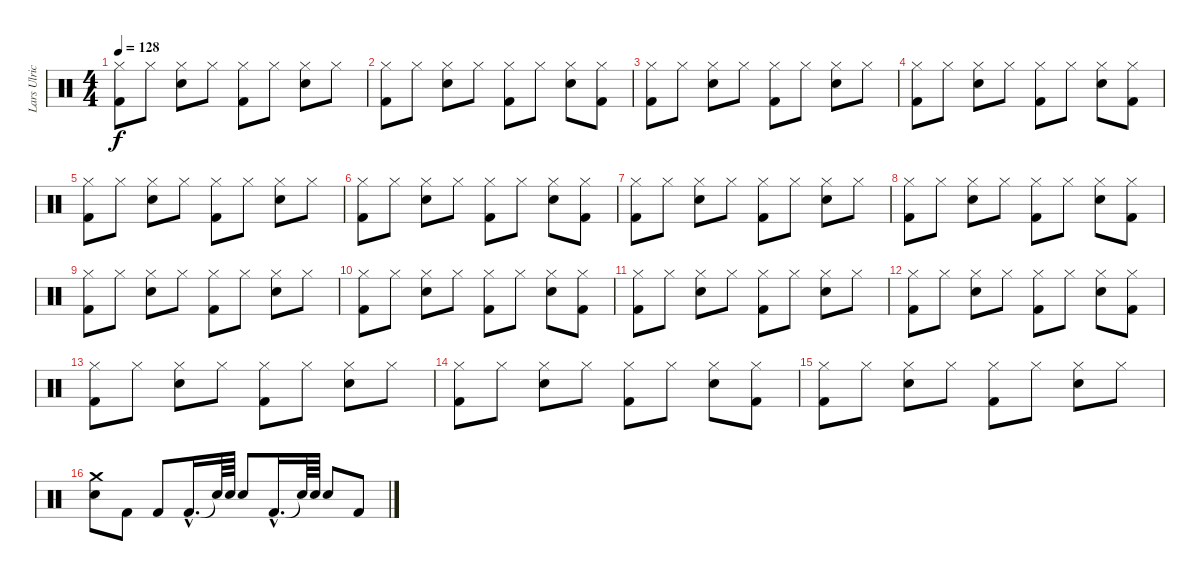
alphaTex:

\track ("Lars Ulrich" "Lars Ulric") {instrument percussion}
\staff {score}
\articulation defaults
\ts (4 4)
\tempo 128
\clef neutral
\ks c
("Kick (hit) 2" "Hi-Hat (closed)").8{dy f volume 12} "Hi-Hat (closed)".8 ("Snare (hit) 2" "Hi-Hat (closed)").8 "Hi-Hat (closed)".8 ("Kick (hit) 2" "Hi-Hat (closed)").8 "Hi-Hat (closed)".8 ("Snare (hit) 2" "Hi-Hat (closed)").8 "Hi-Hat (closed)".8 |
("Kick (hit) 2" "Hi-Hat (closed)").8 "Hi-Hat (closed)".8 ("Snare (hit) 2" "Hi-Hat (closed)").8 "Hi-Hat (closed)".8 ("Kick (hit) 2" "Hi-Hat (closed)").8 "Hi-Hat (closed)".8 ("Snare (hit) 2" "Hi-Hat (closed)").8 ("Kick (hit) 2" "Hi-Hat (closed)").8 |
("Kick (hit) 2" "Hi-Hat (closed)").8{volume 14} "Hi-Hat (closed)".8 ("Snare (hit) 2" "Hi-Hat (closed)").8 "Hi-Hat (closed)".8 ("Kick (hit) 2" "Hi-Hat (closed)").8 "Hi-Hat (closed)".8 ("Snare (hit) 2" "Hi-Hat (closed)").8 "Hi-Hat (closed)".8 |
("Kick (hit) 2" "Hi-Hat (closed)").8 "Hi-Hat (closed)".8 ("Snare (hit) 2" "Hi-Hat (closed)").8 "Hi-Hat (closed)".8 ("Kick (hit) 2" "Hi-Hat (closed)").8 "Hi-Hat (closed)".8 ("Snare (hit) 2" "Hi-Hat (closed)").8 ("Kick (hit) 2" "Hi-Hat (closed)").8 |
("Kick (hit) 2" "Hi-Hat (closed)").8{volume 16} "Hi-Hat (closed)".8 ("Snare (hit) 2" "Hi-Hat (closed)").8 "Hi-Hat (closed)".8 ("Kick (hit) 2" "Hi-Hat (closed)").8 "Hi-Hat (closed)".8 ("Snare (hit) 2" "Hi-Hat (closed)").8 "Hi-Hat (closed)".8 |
("Kick (hit) 2" "Hi-Hat (closed)").8 "Hi-Hat (closed)".8 ("Snare (hit) 2" "Hi-Hat (closed)").8 "Hi-Hat (closed)".8 ("Kick (hit) 2" "Hi-Hat (closed)").8 "Hi-Hat (closed)".8 ("Snare (hit) 2" "Hi-Hat (closed)").8 ("Kick (hit) 2" "Hi-Hat (closed)").8 |
("Kick (hit) 2" "Hi-Hat (closed)").8 "Hi-Hat (closed)".8 ("Snare (hit) 2" "Hi-Hat (closed)").8 "Hi-Hat (closed)".8 ("Kick (hit) 2" "Hi-Hat (closed)").8 "Hi-Hat (closed)".8 ("Snare (hit) 2" "Hi-Hat (closed)").8 "Hi-Hat (closed)".8 |
("Kick (hit) 2" "Hi-Hat (closed)").8 "Hi-Hat (closed)".8 ("Snare (hit) 2" "Hi-Hat (closed)").8 "Hi-Hat (closed)".8 ("Kick (hit) 2" "Hi-Hat (closed)").8 "Hi-Hat (closed)".8 ("Snare (hit) 2" "Hi-Hat (closed)").8 ("Kick (hit) 2" "Hi-Hat (closed)").8 |
("Kick (hit) 2" "Hi-Hat (closed)").8 "Hi-Hat (closed)".8 ("Snare (hit) 2" "Hi-Hat (closed)").8 "Hi-Hat (closed)".8 ("Kick (hit) 2" "Hi-Hat (closed)").8 "Hi-Hat (closed)".8 ("Snare (hit) 2" "Hi-Hat (closed)").8 "Hi-Hat (closed)".8 |
("Kick (hit) 2" "Hi-Hat (closed)").8 "Hi-Hat (closed)".8 ("Snare (hit) 2" "Hi-Hat (closed)").8 "Hi-Hat (closed)".8 ("Kick (hit) 2" "Hi-Hat (closed)").8 "Hi-Hat (closed)".8 ("Snare (hit) 2" "Hi-Hat (closed)").8 ("Kick (hit) 2" "Hi-Hat (closed)").8 |
("Kick (hit) 2" "Hi-Hat (closed)").8 "Hi-Hat (closed)".8 ("Snare (hit) 2" "Hi-Hat (closed)").8 "Hi-Hat (closed)".8 ("Kick (hit) 2" "Hi-Hat (closed)").8 "Hi-Hat (closed)".8 ("Snare (hit) 2" "Hi-Hat (closed)").8 "Hi-Hat (closed)".8 |
("Kick (hit) 2" "Hi-Hat (closed)").8 "Hi-Hat (closed)".8 ("Snare (hit) 2" "Hi-Hat (closed)").8 "Hi-Hat (closed)".8 ("Kick (hit) 2" "Hi-Hat (closed)").8 "Hi-Hat (closed)".8 ("Snare (hit) 2" "Hi-Hat (closed)").8 ("Kick (hit) 2" "Hi-Hat (closed)").8 |
("Kick (hit) 2" "Hi-Hat (closed)").8 "Hi-Hat (closed)".8 ("Snare (hit) 2" "Hi-Hat (closed)").8 "Hi-Hat (closed)".8 ("Kick (hit) 2" "Hi-Hat (closed)").8 "Hi-Hat (closed)".8 ("Snare (hit) 2" "Hi-Hat (closed)").8 "Hi-Hat (closed)".8 |
("Kick (hit) 2" "Hi-Hat (closed)").8 "Hi-Hat (closed)".8 ("Snare (hit) 2" "Hi-Hat (closed)").8 "Hi-Hat (closed)".8 ("Kick (hit) 2" "Hi-Hat (closed)").8 "Hi-Hat (closed)".8 ("Snare (hit) 2" "Hi-Hat (closed)").8 ("Kick (hit) 2" "Hi-Hat (closed)").8 |
("Kick (hit) 2" "Hi-Hat (closed)").8 "Hi-Hat (closed)".8 ("Snare (hit) 2" "Hi-Hat (closed)").8 "Hi-Hat (closed)".8 ("Kick (hit) 2" "Hi-Hat (closed)").8 "Hi-Hat (closed)".8 ("Snare (hit) 2" "Hi-Hat (closed)").8 "Hi-Hat (closed)".8 |
("Snare (hit) 2" "Crash medium (hit)").8 "Kick (hit) 2".8 "Kick (hit) 2".8 "Kick (hit) 2"{hac}.16{d} "Snare (hit)"{t}.64 "Snare (hit) 2".64 "Snare (hit) 2".8 "Kick (hit) 2"{hac}.16{d} "Snare (hit)"{t}.64 "Snare (hit) 2".64 "Snare (hit) 2".8 "Kick (hit) 2".8
